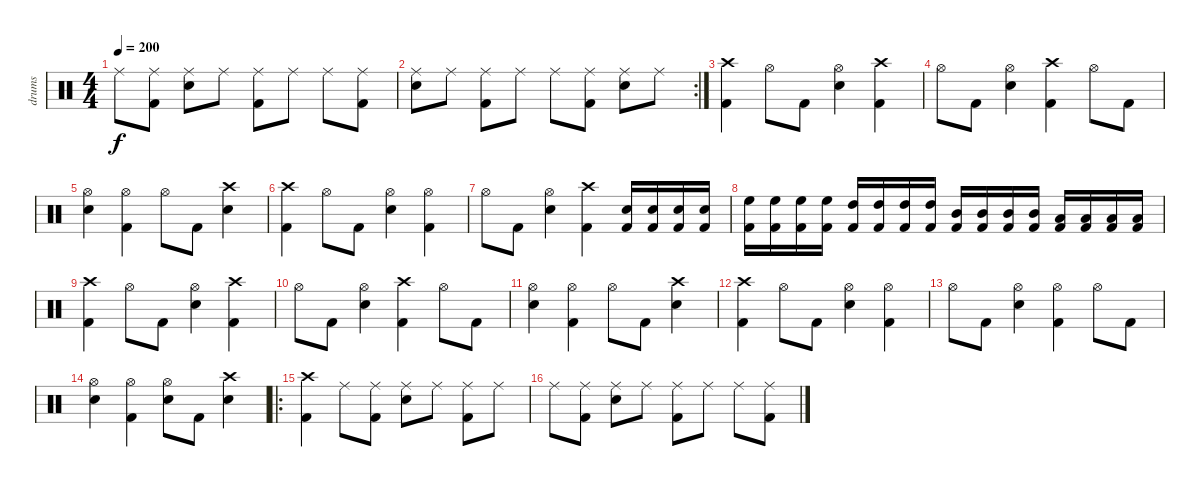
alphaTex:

\track ("drums" "drums") {instrument percussion}
\staff {score}
\articulation defaults
\ts (4 4)
\tempo 200
\clef neutral
\ks c "Ride (middle)".8{dy f}
("Kick (hit) 2" "Ride (middle)").8 ("Snare (hit) 2" "Ride (middle)").8 "Ride (middle)".8 ("Kick (hit) 2" "Ride (middle)").8 "Ride (middle)".8 "Ride (middle)".8 ("Kick (hit) 2" "Ride (middle)").8 |
\rc 2
("Snare (hit) 2" "Ride (middle)").8 "Ride (middle)".8 ("Kick (hit) 2" "Ride (middle)").8 "Ride (middle)".8 "Ride (middle)".8 ("Kick (hit) 2" "Ride (middle)").8 ("Snare (hit) 2" "Ride (middle)").8 "Ride (middle)".8 |
("Kick (hit) 2" "Crash high (hit)").4 "Hi-Hat (open)".8 "Kick (hit) 2".8 ("Snare (hit) 2" "Hi-Hat (open)").4 ("Kick (hit) 2" "Crash high (hit)").4 |
"Hi-Hat (open)".8 "Kick (hit) 2".8 ("Snare (hit) 2" "Hi-Hat (open)").4 ("Kick (hit) 2" "Crash high (hit)").4 "Hi-Hat (open)".8 "Kick (hit) 2".8 |
("Snare (hit) 2" "Hi-Hat (open)").4 ("Kick (hit) 2" "Hi-Hat (open)").4 "Hi-Hat (open)".8 "Kick (hit) 2".8 ("Snare (hit) 2" "Crash high (hit)").4 |
("Kick (hit) 2" "Crash high (hit)").4 "Hi-Hat (open)".8 "Kick (hit) 2".8 ("Snare (hit) 2" "Hi-Hat (open)").4 ("Kick (hit) 2" "Hi-Hat (open)").4 |
"Hi-Hat (open)".8 "Kick (hit) 2".8 ("Snare (hit) 2" "Hi-Hat (open)").4 ("Kick (hit) 2" "Crash high (hit)").4 ("Kick (hit) 2" "Snare (hit) 2").16 ("Kick (hit) 2" "Snare (hit) 2").16 ("Kick (hit) 2" "Snare (hit) 2").16 ("Kick (hit) 2" "Snare (hit) 2").16 |
("Kick (hit) 2" "High Floor Tom (hit)").16 ("Kick (hit) 2" "High Floor Tom (hit)").16 ("Kick (hit) 2" "High Floor Tom (hit)").16 ("Kick (hit) 2" "High Floor Tom (hit)").16 ("Kick (hit) 2" "High Tom (hit)").16 ("Kick (hit) 2" "High Tom (hit)").16 ("Kick (hit) 2" "High Tom (hit)").16 ("Kick (hit) 2" "High Tom (hit)").16 ("Kick (hit) 2" "Mid Tom (hit)").16 ("Kick (hit) 2" "Mid Tom (hit)").16 ("Kick (hit) 2" "Mid Tom (hit)").16 ("Kick (hit) 2" "Mid Tom (hit)").16 ("Kick (hit) 2" "Low Tom (hit)").16 ("Kick (hit) 2" "Low Tom (hit)").16 ("Kick (hit) 2" "Low Tom (hit)").16 ("Kick (hit) 2" "Low Tom (hit)").16 |
("Kick (hit) 2" "Crash high (hit)").4 "Hi-Hat (open)".8 "Kick (hit) 2".8 ("Snare (hit) 2" "Hi-Hat (open)").4 ("Kick (hit) 2" "Crash high (hit)").4 |
"Hi-Hat (open)".8 "Kick (hit) 2".8 ("Snare (hit) 2" "Hi-Hat (open)").4 ("Kick (hit) 2" "Crash high (hit)").4 "Hi-Hat (open)".8 "Kick (hit) 2".8 |
("Snare (hit) 2" "Hi-Hat (open)").4 ("Kick (hit) 2" "Hi-Hat (open)").4 "Hi-Hat (open)".8 "Kick (hit) 2".8 ("Snare (hit) 2" "Crash high (hit)").4 |
("Kick (hit) 2" "Crash high (hit)").4 "Hi-Hat (open)".8 "Kick (hit) 2".8 ("Snare (hit) 2" "Hi-Hat (open)").4 ("Kick (hit) 2" "Hi-Hat (open)").4 |
"Hi-Hat (open)".8 "Kick (hit) 2".8 ("Snare (hit) 2" "Hi-Hat (open)").4 ("Kick (hit) 2" "Hi-Hat (open)").4 "Hi-Hat (open)".8 "Kick (hit) 2".8 |
("Snare (hit) 2" "Hi-Hat (open)").4 ("Kick (hit) 2" "Hi-Hat (open)").4 ("Snare (hit) 2" "Hi-Hat (open)").8 "Kick (hit) 2".8 ("Snare (hit) 2" "Crash high (hit)").4 |
\ro
("Kick (hit) 2" "Crash high (hit)").4 "Ride (middle)".8 ("Kick (hit) 2" "Ride (middle)").8 ("Snare (hit) 2" "Ride (middle)").8 "Ride (middle)".8 ("Kick (hit) 2" "Ride (middle)").8 "Ride (middle)".8 |
"Ride (middle)".8 ("Kick (hit) 2" "Ride (middle)").8 ("Snare (hit) 2" "Ride (middle)").8 "Ride (middle)".8 ("Kick (hit) 2" "Ride (middle)").8 "Ride (middle)".8 "Ride (middle)".8 ("Kick (hit) 2" "Ride (middle)").8
